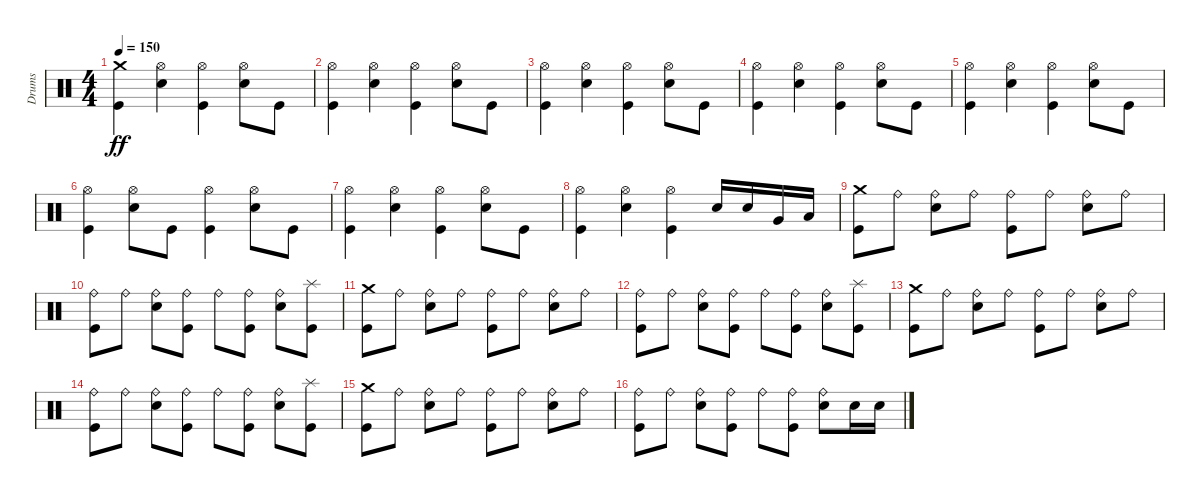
\track ("Drums" "Drums") {instrument percussion}
\staff {score}
\articulation defaults
\ts (4 4)
\tempo 150
\clef neutral
\ks c
("Kick (hit)" "Crash medium (hit)").4{dy ff} ("Electric Snare (hit)" "Hi-Hat (open)").4 ("Kick (hit)" "Hi-Hat (open)").4 ("Electric Snare (hit)" "Hi-Hat (open)").8 "Kick (hit)".8 |
("Kick (hit)" "Hi-Hat (open)").4 ("Electric Snare (hit)" "Hi-Hat (open)").4 ("Kick (hit)" "Hi-Hat (open)").4 ("Electric Snare (hit)" "Hi-Hat (open)").8 "Kick (hit)".8 |
("Kick (hit)" "Hi-Hat (open)").4 ("Electric Snare (hit)" "Hi-Hat (open)").4 ("Kick (hit)" "Hi-Hat (open)").4 ("Electric Snare (hit)" "Hi-Hat (open)").8 "Kick (hit)".8 |
("Kick (hit)" "Hi-Hat (open)").4 ("Electric Snare (hit)" "Hi-Hat (open)").4 ("Kick (hit)" "Hi-Hat (open)").4 ("Electric Snare (hit)" "Hi-Hat (open)").8 "Kick (hit)".8 |
("Kick (hit)" "Hi-Hat (open)").4 ("Electric Snare (hit)" "Hi-Hat (open)").4 ("Kick (hit)" "Hi-Hat (open)").4 ("Electric Snare (hit)" "Hi-Hat (open)").8 "Kick (hit)".8 |
("Kick (hit)" "Hi-Hat (open)").4 ("Electric Snare (hit)" "Hi-Hat (open)").8 "Kick (hit)".8 ("Kick (hit)" "Hi-Hat (open)").4 ("Electric Snare (hit)" "Hi-Hat (open)").8 "Kick (hit)".8 |
("Kick (hit)" "Hi-Hat (open)").4 ("Electric Snare (hit)" "Hi-Hat (open)").4 ("Kick (hit)" "Hi-Hat (open)").4 ("Electric Snare (hit)" "Hi-Hat (open)").8 "Kick (hit)".8 |
("Kick (hit)" "Hi-Hat (open)").4 ("Electric Snare (hit)" "Hi-Hat (open)").4 ("Kick (hit)" "Hi-Hat (open)").4 "Electric Snare (hit)".16 "Electric Snare (hit)".16 "Very Low Tom (hit)".16 "Low Floor Tom (hit)".16 |
("Kick (hit)" "Crash medium (hit)").8 "Ride (bell)".8 ("Electric Snare (hit)" "Ride (bell)").8 "Ride (bell)".8 ("Kick (hit)" "Ride (bell)").8 "Ride (bell)".8 ("Electric Snare (hit)" "Ride (bell)").8 "Ride (bell)".8 |
("Kick (hit)" "Ride (bell)").8 "Ride (bell)".8 ("Electric Snare (hit)" "Ride (bell)").8 ("Kick (hit)" "Ride (bell)").8 "Ride (bell)".8 ("Kick (hit)" "Ride (bell)").8 ("Electric Snare (hit)" "Ride (bell)").8 ("Kick (hit)" "Splash (hit)").8 |
("Kick (hit)" "Crash medium (hit)").8 "Ride (bell)".8 ("Electric Snare (hit)" "Ride (bell)").8 "Ride (bell)".8 ("Kick (hit)" "Ride (bell)").8 "Ride (bell)".8 ("Electric Snare (hit)" "Ride (bell)").8 "Ride (bell)".8 |
("Kick (hit)" "Ride (bell)").8 "Ride (bell)".8 ("Electric Snare (hit)" "Ride (bell)").8 ("Kick (hit)" "Ride (bell)").8 "Ride (bell)".8 ("Kick (hit)" "Ride (bell)").8 ("Electric Snare (hit)" "Ride (bell)").8 ("Kick (hit)" "Splash (hit)").8 |
("Kick (hit)" "Crash medium (hit)").8 "Ride (bell)".8 ("Electric Snare (hit)" "Ride (bell)").8 "Ride (bell)".8 ("Kick (hit)" "Ride (bell)").8 "Ride (bell)".8 ("Electric Snare (hit)" "Ride (bell)").8 "Ride (bell)".8 |
("Kick (hit)" "Ride (bell)").8 "Ride (bell)".8 ("Electric Snare (hit)" "Ride (bell)").8 ("Kick (hit)" "Ride (bell)").8 "Ride (bell)".8 ("Kick (hit)" "Ride (bell)").8 ("Electric Snare (hit)" "Ride (bell)").8 ("Kick (hit)" "Splash (hit)").8 |
("Kick (hit)" "Crash medium (hit)").8 "Ride (bell)".8 ("Electric Snare (hit)" "Ride (bell)").8 "Ride (bell)".8 ("Kick (hit)" "Ride (bell)").8 "Ride (bell)".8 ("Electric Snare (hit)" "Ride (bell)").8 "Ride (bell)".8 |
("Kick (hit)" "Ride (bell)").8 "Ride (bell)".8 ("Electric Snare (hit)" "Ride (bell)").8 ("Kick (hit)" "Ride (bell)").8 "Ride (bell)".8 ("Kick (hit)" "Ride (bell)").8 ("Electric Snare (hit)" "Ride (bell)").8 "Electric Snare (hit)".16 "Electric Snare (hit)".16
